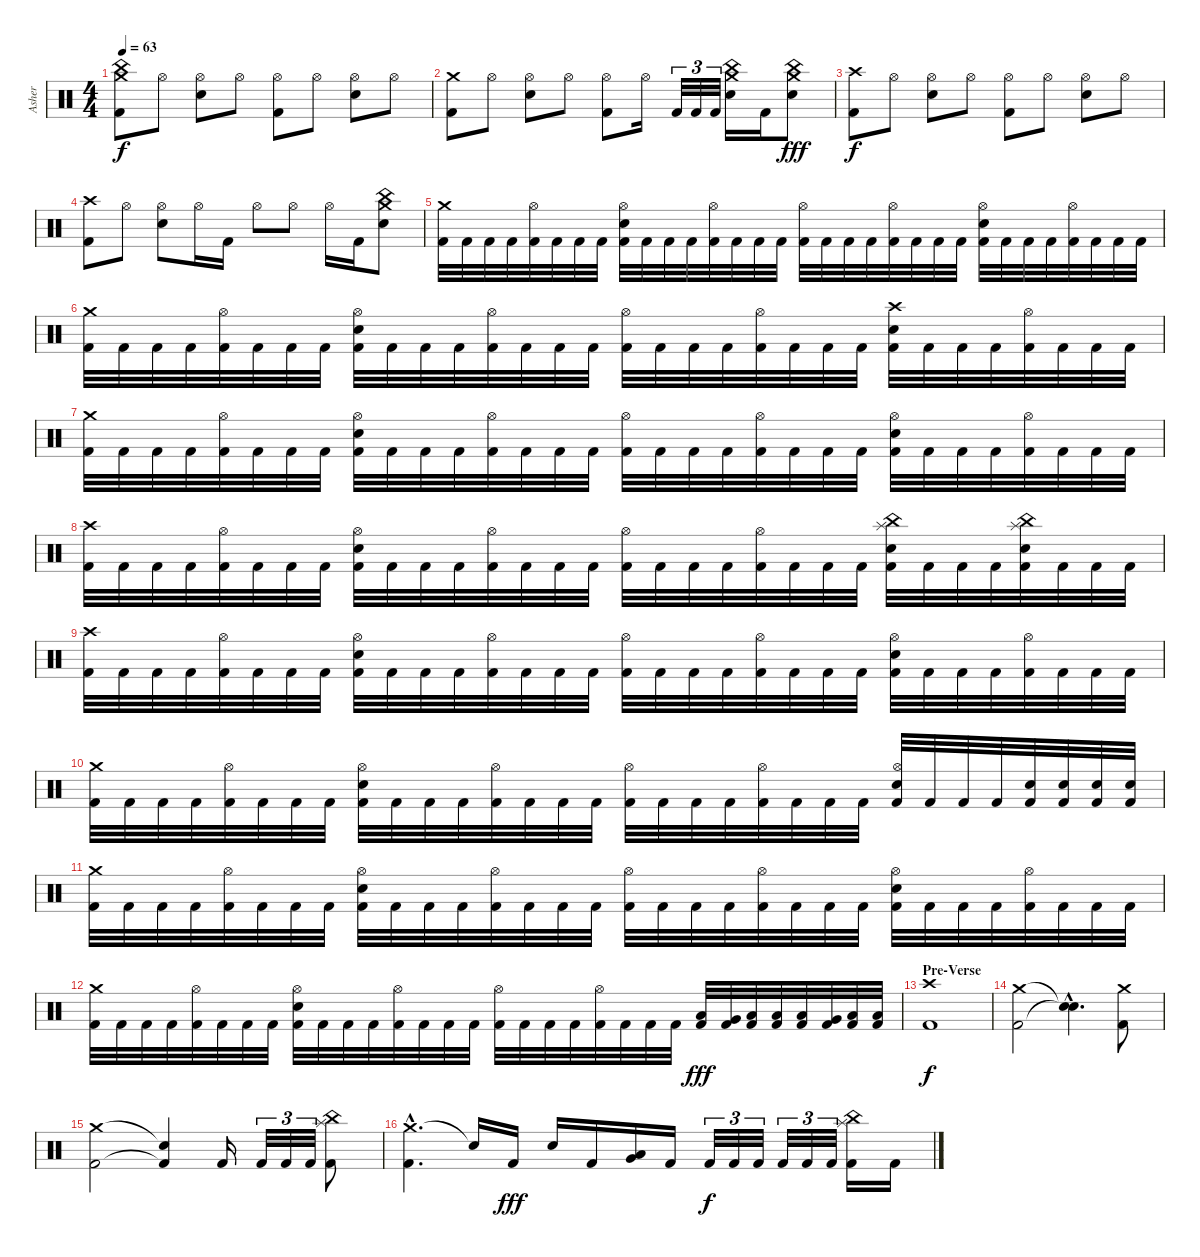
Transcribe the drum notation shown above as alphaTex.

\track ("Asher" "Asher") {instrument percussion}
\staff {score}
\articulation defaults
\ts (4 4)
\tempo 63
\clef neutral
\ks c
("Crash medium (hit)" "China (hit)" "Kick (hit) 2").8{dy f} "Hi-Hat (open)".8 ("Hi-Hat (open)" "Electric Snare (hit)").8 "Hi-Hat (open)".8 ("Hi-Hat (open)" "Kick (hit) 2").8 "Hi-Hat (open)".8 ("Hi-Hat (open)" "Electric Snare (hit)").8 "Hi-Hat (open)".8 |
("Crash medium (hit)" "Kick (hit) 2").8 "Hi-Hat (open)".8 ("Hi-Hat (open)" "Electric Snare (hit)").8 "Hi-Hat (open)".8 ("Hi-Hat (open)" "Kick (hit) 2").8 "Hi-Hat (open)".16 "Kick (hit) 2".32{tu (3 2)} "Kick (hit) 2".32{tu (3 2)} "Kick (hit) 2".32{tu (3 2)} ("Crash medium (hit)" "China (hit)" "Electric Snare (hit)").16 "Kick (hit) 2".16 ("Crash medium (hit)" "China (hit)" "Electric Snare (hit)").8{dy fff} |
("Crash high (hit)" "Kick (hit) 2").8{dy f} "Hi-Hat (open)".8 ("Hi-Hat (open)" "Electric Snare (hit)").8 "Hi-Hat (open)".8 ("Hi-Hat (open)" "Kick (hit) 2").8 "Hi-Hat (open)".8 ("Hi-Hat (open)" "Electric Snare (hit)").8 "Hi-Hat (open)".8 |
("Crash high (hit)" "Kick (hit) 2").8 "Hi-Hat (open)".8 ("Hi-Hat (open)" "Electric Snare (hit)").8 "Hi-Hat (open)".16 "Kick (hit) 2".16 "Hi-Hat (open)".8 "Hi-Hat (open)".8 "Hi-Hat (open)".16 "Kick (hit) 2".16 ("Crash medium (hit)" "China (hit)" "Electric Snare (hit)").8 |
\section ("" "")
("Crash medium (hit)" "Kick (hit) 2").32 "Kick (hit) 2".32 "Kick (hit) 2".32 "Kick (hit) 2".32 ("Hi-Hat (open)" "Kick (hit) 2").32 "Kick (hit) 2".32 "Kick (hit) 2".32 "Kick (hit) 2".32 ("Hi-Hat (open)" "Electric Snare (hit)" "Kick (hit) 2").32 "Kick (hit) 2".32 "Kick (hit) 2".32 "Kick (hit) 2".32 ("Hi-Hat (open)" "Kick (hit) 2").32 "Kick (hit) 2".32 "Kick (hit) 2".32 "Kick (hit) 2".32 ("Hi-Hat (open)" "Kick (hit) 2").32 "Kick (hit) 2".32 "Kick (hit) 2".32 "Kick (hit) 2".32 ("Hi-Hat (open)" "Kick (hit) 2").32 "Kick (hit) 2".32 "Kick (hit) 2".32 "Kick (hit) 2".32 ("Hi-Hat (open)" "Electric Snare (hit)" "Kick (hit) 2").32 "Kick (hit) 2".32 "Kick (hit) 2".32 "Kick (hit) 2".32 ("Hi-Hat (open)" "Kick (hit) 2").32 "Kick (hit) 2".32 "Kick (hit) 2".32 "Kick (hit) 2".32 |
("Crash medium (hit)" "Kick (hit) 2").32 "Kick (hit) 2".32 "Kick (hit) 2".32 "Kick (hit) 2".32 ("Hi-Hat (open)" "Kick (hit) 2").32 "Kick (hit) 2".32 "Kick (hit) 2".32 "Kick (hit) 2".32 ("Hi-Hat (open)" "Electric Snare (hit)" "Kick (hit) 2").32 "Kick (hit) 2".32 "Kick (hit) 2".32 "Kick (hit) 2".32 ("Hi-Hat (open)" "Kick (hit) 2").32 "Kick (hit) 2".32 "Kick (hit) 2".32 "Kick (hit) 2".32 ("Hi-Hat (open)" "Kick (hit) 2").32 "Kick (hit) 2".32 "Kick (hit) 2".32 "Kick (hit) 2".32 ("Hi-Hat (open)" "Kick (hit) 2").32 "Kick (hit) 2".32 "Kick (hit) 2".32 "Kick (hit) 2".32 ("Crash high (hit)" "Electric Snare (hit)" "Kick (hit) 2").32 "Kick (hit) 2".32 "Kick (hit) 2".32 "Kick (hit) 2".32 ("Hi-Hat (open)" "Kick (hit) 2").32 "Kick (hit) 2".32 "Kick (hit) 2".32 "Kick (hit) 2".32 |
("Crash medium (hit)" "Kick (hit) 2").32 "Kick (hit) 2".32 "Kick (hit) 2".32 "Kick (hit) 2".32 ("Hi-Hat (open)" "Kick (hit) 2").32 "Kick (hit) 2".32 "Kick (hit) 2".32 "Kick (hit) 2".32 ("Hi-Hat (open)" "Electric Snare (hit)" "Kick (hit) 2").32 "Kick (hit) 2".32 "Kick (hit) 2".32 "Kick (hit) 2".32 ("Hi-Hat (open)" "Kick (hit) 2").32 "Kick (hit) 2".32 "Kick (hit) 2".32 "Kick (hit) 2".32 ("Hi-Hat (open)" "Kick (hit) 2").32 "Kick (hit) 2".32 "Kick (hit) 2".32 "Kick (hit) 2".32 ("Hi-Hat (open)" "Kick (hit) 2").32 "Kick (hit) 2".32 "Kick (hit) 2".32 "Kick (hit) 2".32 ("Hi-Hat (open)" "Electric Snare (hit)" "Kick (hit) 2").32 "Kick (hit) 2".32 "Kick (hit) 2".32 "Kick (hit) 2".32 ("Hi-Hat (open)" "Kick (hit) 2").32 "Kick (hit) 2".32 "Kick (hit) 2".32 "Kick (hit) 2".32 |
("Crash high (hit)" "Kick (hit) 2").32 "Kick (hit) 2".32 "Kick (hit) 2".32 "Kick (hit) 2".32 ("Hi-Hat (open)" "Kick (hit) 2").32 "Kick (hit) 2".32 "Kick (hit) 2".32 "Kick (hit) 2".32 ("Hi-Hat (open)" "Electric Snare (hit)" "Kick (hit) 2").32 "Kick (hit) 2".32 "Kick (hit) 2".32 "Kick (hit) 2".32 ("Hi-Hat (open)" "Kick (hit) 2").32 "Kick (hit) 2".32 "Kick (hit) 2".32 "Kick (hit) 2".32 ("Hi-Hat (open)" "Kick (hit) 2").32 "Kick (hit) 2".32 "Kick (hit) 2".32 "Kick (hit) 2".32 ("Hi-Hat (open)" "Kick (hit) 2").32 "Kick (hit) 2".32 "Kick (hit) 2".32 "Kick (hit) 2".32 ("Splash (hit)" "China (hit)" "Electric Snare (hit)" "Kick (hit) 2").32 "Kick (hit) 2".32 "Kick (hit) 2".32 "Kick (hit) 2".32 ("Splash (hit)" "China (hit)" "Electric Snare (hit)" "Kick (hit) 2").32 "Kick (hit) 2".32 "Kick (hit) 2".32 "Kick (hit) 2".32 |
("Crash high (hit)" "Kick (hit) 2").32 "Kick (hit) 2".32 "Kick (hit) 2".32 "Kick (hit) 2".32 ("Hi-Hat (open)" "Kick (hit) 2").32 "Kick (hit) 2".32 "Kick (hit) 2".32 "Kick (hit) 2".32 ("Hi-Hat (open)" "Electric Snare (hit)" "Kick (hit) 2").32 "Kick (hit) 2".32 "Kick (hit) 2".32 "Kick (hit) 2".32 ("Hi-Hat (open)" "Kick (hit) 2").32 "Kick (hit) 2".32 "Kick (hit) 2".32 "Kick (hit) 2".32 ("Hi-Hat (open)" "Kick (hit) 2").32 "Kick (hit) 2".32 "Kick (hit) 2".32 "Kick (hit) 2".32 ("Hi-Hat (open)" "Kick (hit) 2").32 "Kick (hit) 2".32 "Kick (hit) 2".32 "Kick (hit) 2".32 ("Hi-Hat (open)" "Electric Snare (hit)" "Kick (hit) 2").32 "Kick (hit) 2".32 "Kick (hit) 2".32 "Kick (hit) 2".32 ("Hi-Hat (open)" "Kick (hit) 2").32 "Kick (hit) 2".32 "Kick (hit) 2".32 "Kick (hit) 2".32 |
("Crash medium (hit)" "Kick (hit) 2").32 "Kick (hit) 2".32 "Kick (hit) 2".32 "Kick (hit) 2".32 ("Hi-Hat (open)" "Kick (hit) 2").32 "Kick (hit) 2".32 "Kick (hit) 2".32 "Kick (hit) 2".32 ("Hi-Hat (open)" "Electric Snare (hit)" "Kick (hit) 2").32 "Kick (hit) 2".32 "Kick (hit) 2".32 "Kick (hit) 2".32 ("Hi-Hat (open)" "Kick (hit) 2").32 "Kick (hit) 2".32 "Kick (hit) 2".32 "Kick (hit) 2".32 ("Hi-Hat (open)" "Kick (hit) 2").32 "Kick (hit) 2".32 "Kick (hit) 2".32 "Kick (hit) 2".32 ("Hi-Hat (open)" "Kick (hit) 2").32 "Kick (hit) 2".32 "Kick (hit) 2".32 "Kick (hit) 2".32 ("Hi-Hat (open)" "Electric Snare (hit)" "Kick (hit) 2").32 "Kick (hit) 2".32 "Kick (hit) 2".32 "Kick (hit) 2".32 ("Electric Snare (hit)" "Kick (hit) 2").32 ("Electric Snare (hit)" "Kick (hit) 2").32 ("Electric Snare (hit)" "Kick (hit) 2").32 ("Electric Snare (hit)" "Kick (hit) 2").32 |
("Crash medium (hit)" "Kick (hit) 2").32 "Kick (hit) 2".32 "Kick (hit) 2".32 "Kick (hit) 2".32 ("Hi-Hat (open)" "Kick (hit) 2").32 "Kick (hit) 2".32 "Kick (hit) 2".32 "Kick (hit) 2".32 ("Hi-Hat (open)" "Electric Snare (hit)" "Kick (hit) 2").32 "Kick (hit) 2".32 "Kick (hit) 2".32 "Kick (hit) 2".32 ("Hi-Hat (open)" "Kick (hit) 2").32 "Kick (hit) 2".32 "Kick (hit) 2".32 "Kick (hit) 2".32 ("Hi-Hat (open)" "Kick (hit) 2").32 "Kick (hit) 2".32 "Kick (hit) 2".32 "Kick (hit) 2".32 ("Hi-Hat (open)" "Kick (hit) 2").32 "Kick (hit) 2".32 "Kick (hit) 2".32 "Kick (hit) 2".32 ("Hi-Hat (open)" "Electric Snare (hit)" "Kick (hit) 2").32 "Kick (hit) 2".32 "Kick (hit) 2".32 "Kick (hit) 2".32 ("Hi-Hat (open)" "Kick (hit) 2").32 "Kick (hit) 2".32 "Kick (hit) 2".32 "Kick (hit) 2".32 |
("Crash medium (hit)" "Kick (hit) 2").32 "Kick (hit) 2".32 "Kick (hit) 2".32 "Kick (hit) 2".32 ("Hi-Hat (open)" "Kick (hit) 2").32 "Kick (hit) 2".32 "Kick (hit) 2".32 "Kick (hit) 2".32 ("Hi-Hat (open)" "Electric Snare (hit)" "Kick (hit) 2").32 "Kick (hit) 2".32 "Kick (hit) 2".32 "Kick (hit) 2".32 ("Hi-Hat (open)" "Kick (hit) 2").32 "Kick (hit) 2".32 "Kick (hit) 2".32 "Kick (hit) 2".32 ("Hi-Hat (open)" "Kick (hit) 2").32 "Kick (hit) 2".32 "Kick (hit) 2".32 "Kick (hit) 2".32 ("Hi-Hat (open)" "Kick (hit) 2").32 "Kick (hit) 2".32 "Kick (hit) 2".32 "Kick (hit) 2".32 ("Low Tom (hit)" "Kick (hit) 2").32{dy fff} ("Very Low Tom (hit)" "Kick (hit) 2").32 ("Low Floor Tom (hit)" "Kick (hit) 2").32 ("Low Floor Tom (hit)" "Kick (hit) 2").32 ("Low Tom (hit)" "Kick (hit) 2").32 ("Very Low Tom (hit)" "Kick (hit) 2").32 ("Low Floor Tom (hit)" "Kick (hit) 2").32 ("Low Floor Tom (hit)" "Kick (hit) 2").32 |
\section ("" "Pre-Verse")
("Crash high (hit)" "Kick (hit) 2").1{dy f} |
("Crash medium (hit)" "Kick (hit) 2").2 ("Snare (hit)"{hac t} "Snare (hit)"{hac t}).4{d} ("Crash medium (hit)" "Kick (hit) 2").8 |
("Crash medium (hit)" "Kick (hit) 2").2 ("Snare (hit)"{t} "Kick (hit) 2"{t}).4 "Kick (hit) 2".16 "Kick (hit) 2".32{tu (3 2)} "Kick (hit) 2".32{tu (3 2)} "Kick (hit) 2".32{tu (3 2)} ("China (hit)" "Splash (hit)" "Kick (hit) 2").8 |
("Crash medium (hit)"{hac} "Kick (hit) 2"{hac}).4{d} "Snare (hit)"{t}.16 "Kick (hit) 2".16{dy fff} "Electric Snare (hit)".16 "Kick (hit) 2".16 ("Very Low Tom (hit)" "Low Floor Tom (hit)").16 "Kick (hit) 2".16 "Kick (hit) 2".32{tu (3 2) dy f} "Kick (hit) 2".32{tu (3 2)} "Kick (hit) 2".32{tu (3 2)} "Kick (hit) 2".32{tu (3 2)} "Kick (hit) 2".32{tu (3 2)} "Kick (hit) 2".32{tu (3 2)} ("Splash (hit)" "China (hit)" "Kick (hit) 2").16 "Kick (hit) 2".16
